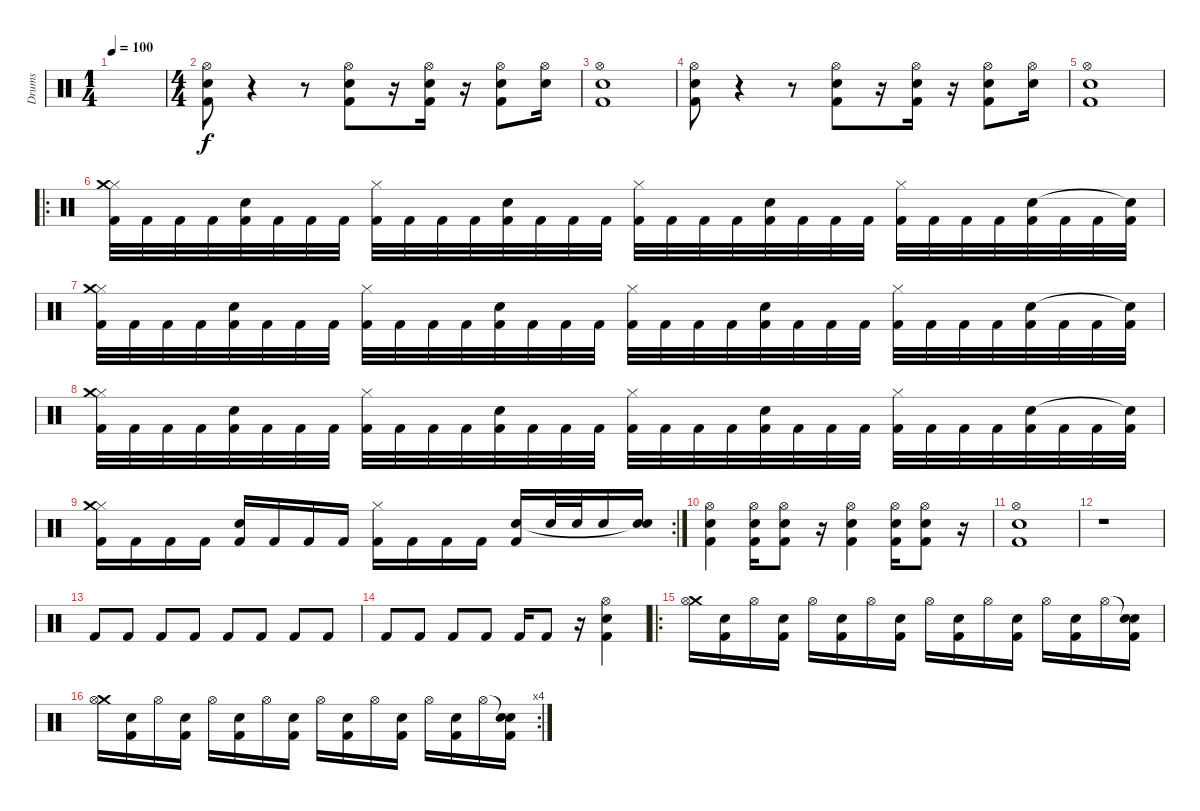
\track ("Drums" "Drums") {instrument percussion}
\staff {score}
\articulation defaults
\ts (1 4)
\tempo 100
\clef neutral
\ks c
|
\ts (4 4)
("Hi-Hat (open)" "Snare (hit) 2" "Kick (hit) 2").8 r.4 r.8 ("Hi-Hat (open)" "Snare (hit) 2" "Kick (hit) 2").8 r.16 ("Hi-Hat (open)" "Snare (hit) 2" "Kick (hit) 2").16 r.16 ("Hi-Hat (open)" "Snare (hit) 2" "Kick (hit) 2").8 ("Hi-Hat (open)" "Snare (hit) 2").16 |
("Hi-Hat (open)" "Snare (hit) 2" "Kick (hit) 2").1 |
("Hi-Hat (open)" "Snare (hit) 2" "Kick (hit) 2").8 r.4 r.8 ("Hi-Hat (open)" "Snare (hit) 2" "Kick (hit) 2").8 r.16 ("Hi-Hat (open)" "Snare (hit) 2" "Kick (hit) 2").16 r.16 ("Hi-Hat (open)" "Snare (hit) 2" "Kick (hit) 2").8 ("Hi-Hat (open)" "Snare (hit) 2").16 |
("Hi-Hat (open)" "Snare (hit) 2" "Kick (hit) 2").1 |
\ro
("Kick (hit) 2" "Hi-Hat (closed)" "Crash medium (hit)").32 "Kick (hit) 2".32 "Kick (hit) 2".32 "Kick (hit) 2".32 ("Kick (hit) 2" "Snare (hit) 2").32 "Kick (hit) 2".32 "Kick (hit) 2".32 "Kick (hit) 2".32 ("Kick (hit) 2" "Hi-Hat (closed)").32 "Kick (hit) 2".32 "Kick (hit) 2".32 "Kick (hit) 2".32 ("Kick (hit) 2" "Snare (hit) 2").32 "Kick (hit) 2".32 "Kick (hit) 2".32 "Kick (hit) 2".32 ("Kick (hit) 2" "Hi-Hat (closed)").32 "Kick (hit) 2".32 "Kick (hit) 2".32 "Kick (hit) 2".32 ("Kick (hit) 2" "Snare (hit) 2").32 "Kick (hit) 2".32 "Kick (hit) 2".32 "Kick (hit) 2".32 ("Kick (hit) 2" "Hi-Hat (closed)").32 "Kick (hit) 2".32 "Kick (hit) 2".32 "Kick (hit) 2".32 ("Kick (hit) 2" "Snare (hit) 2").32 "Kick (hit) 2".32 "Kick (hit) 2".32 ("Kick (hit) 2" "Snare (hit)"{t}).32 |
("Kick (hit) 2" "Hi-Hat (closed)" "Crash medium (hit)").32 "Kick (hit) 2".32 "Kick (hit) 2".32 "Kick (hit) 2".32 ("Kick (hit) 2" "Snare (hit) 2").32 "Kick (hit) 2".32 "Kick (hit) 2".32 "Kick (hit) 2".32 ("Kick (hit) 2" "Hi-Hat (closed)").32 "Kick (hit) 2".32 "Kick (hit) 2".32 "Kick (hit) 2".32 ("Kick (hit) 2" "Snare (hit) 2").32 "Kick (hit) 2".32 "Kick (hit) 2".32 "Kick (hit) 2".32 ("Kick (hit) 2" "Hi-Hat (closed)").32 "Kick (hit) 2".32 "Kick (hit) 2".32 "Kick (hit) 2".32 ("Kick (hit) 2" "Snare (hit) 2").32 "Kick (hit) 2".32 "Kick (hit) 2".32 "Kick (hit) 2".32 ("Kick (hit) 2" "Hi-Hat (closed)").32 "Kick (hit) 2".32 "Kick (hit) 2".32 "Kick (hit) 2".32 ("Kick (hit) 2" "Snare (hit) 2").32 "Kick (hit) 2".32 "Kick (hit) 2".32 ("Kick (hit) 2" "Snare (hit)"{t}).32 |
("Kick (hit) 2" "Hi-Hat (closed)" "Crash medium (hit)").32 "Kick (hit) 2".32 "Kick (hit) 2".32 "Kick (hit) 2".32 ("Kick (hit) 2" "Snare (hit) 2").32 "Kick (hit) 2".32 "Kick (hit) 2".32 "Kick (hit) 2".32 ("Kick (hit) 2" "Hi-Hat (closed)").32 "Kick (hit) 2".32 "Kick (hit) 2".32 "Kick (hit) 2".32 ("Kick (hit) 2" "Snare (hit) 2").32 "Kick (hit) 2".32 "Kick (hit) 2".32 "Kick (hit) 2".32 ("Kick (hit) 2" "Hi-Hat (closed)").32 "Kick (hit) 2".32 "Kick (hit) 2".32 "Kick (hit) 2".32 ("Kick (hit) 2" "Snare (hit) 2").32 "Kick (hit) 2".32 "Kick (hit) 2".32 "Kick (hit) 2".32 ("Kick (hit) 2" "Hi-Hat (closed)").32 "Kick (hit) 2".32 "Kick (hit) 2".32 "Kick (hit) 2".32 ("Kick (hit) 2" "Snare (hit) 2").32 "Kick (hit) 2".32 "Kick (hit) 2".32 ("Kick (hit) 2" "Snare (hit)"{t}).32 |
\rc 2
("Kick (hit) 2" "Hi-Hat (closed)" "Crash medium (hit)").16 "Kick (hit) 2".16 "Kick (hit) 2".16 "Kick (hit) 2".16 ("Kick (hit) 2" "Snare (hit) 2").16 "Kick (hit) 2".16 "Kick (hit) 2".16 "Kick (hit) 2".16 ("Kick (hit) 2" "Hi-Hat (closed)").16 "Kick (hit) 2".16 "Kick (hit) 2".16 "Kick (hit) 2".16 ("Kick (hit) 2" "Snare (hit) 2").16 "Snare (hit) 2".32 "Snare (hit) 2".32 "Snare (hit) 2".16 ("Snare (hit) 2" "Snare (hit)"{t}).16 |
("Hi-Hat (open)" "Snare (hit) 2" "Kick (hit) 2").4 ("Hi-Hat (open)" "Snare (hit) 2" "Kick (hit) 2").16 ("Hi-Hat (open)" "Snare (hit) 2" "Kick (hit) 2").8 r.16 ("Hi-Hat (open)" "Snare (hit) 2" "Kick (hit) 2").4 ("Hi-Hat (open)" "Snare (hit) 2" "Kick (hit) 2").16 ("Hi-Hat (open)" "Snare (hit) 2" "Kick (hit) 2").8 r.16 |
("Hi-Hat (open)" "Snare (hit) 2" "Kick (hit) 2").1 |
r.1 |
"Kick (hit) 2".8 "Kick (hit) 2".8 "Kick (hit) 2".8 "Kick (hit) 2".8 "Kick (hit) 2".8 "Kick (hit) 2".8 "Kick (hit) 2".8 "Kick (hit) 2".8 |
"Kick (hit) 2".8 "Kick (hit) 2".8 "Kick (hit) 2".8 "Kick (hit) 2".8 "Kick (hit) 2".16 "Kick (hit) 2".8 r.16 ("Hi-Hat (open)" "Snare (hit) 2" "Kick (hit) 2").4 |
\ro
("Crash medium (hit)" "Hi-Hat (open)").16 ("Snare (hit) 2" "Kick (hit) 2").16 "Hi-Hat (open)".16 ("Snare (hit) 2" "Kick (hit) 2").16 "Hi-Hat (open)".16 ("Snare (hit) 2" "Kick (hit) 2").16 "Hi-Hat (open)".16 ("Snare (hit) 2" "Kick (hit) 2").16 "Hi-Hat (open)".16 ("Snare (hit) 2" "Kick (hit) 2").16 "Hi-Hat (open)".16 ("Snare (hit) 2" "Kick (hit) 2").16 "Hi-Hat (open)".16 ("Snare (hit) 2" "Kick (hit) 2").16 "Hi-Hat (open)".16 ("Snare (hit)"{t} "Snare (hit) 2" "Kick (hit) 2").16 |
\rc 4
("Crash medium (hit)" "Hi-Hat (open)").16 ("Snare (hit) 2" "Kick (hit) 2").16 "Hi-Hat (open)".16 ("Snare (hit) 2" "Kick (hit) 2").16 "Hi-Hat (open)".16 ("Snare (hit) 2" "Kick (hit) 2").16 "Hi-Hat (open)".16 ("Snare (hit) 2" "Kick (hit) 2").16 "Hi-Hat (open)".16 ("Snare (hit) 2" "Kick (hit) 2").16 "Hi-Hat (open)".16 ("Snare (hit) 2" "Kick (hit) 2").16 "Hi-Hat (open)".16 ("Snare (hit) 2" "Kick (hit) 2").16 "Hi-Hat (open)".16 ("Snare (hit)"{t} "Snare (hit) 2" "Kick (hit) 2").16
